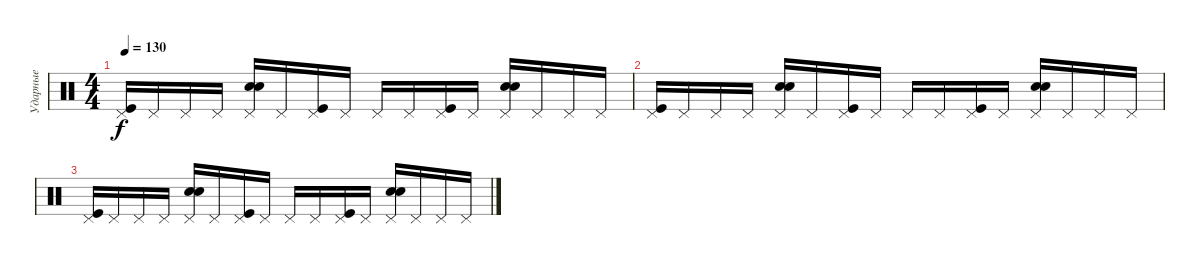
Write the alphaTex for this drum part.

\track ("Ударные" "Ударные") {instrument percussion}
\staff {score}
\articulation defaults
\ts (4 4)
\tempo 130
\clef neutral
\ks c
("Kick (hit)" "Pedal Hi-Hat (hit)").16{dy f} "Pedal Hi-Hat (hit)".16 "Pedal Hi-Hat (hit)".16 "Pedal Hi-Hat (hit)".16 ("Pedal Hi-Hat (hit)" "Electric Snare (hit)" "Hand Clap (hit)").16 "Pedal Hi-Hat (hit)".16 ("Kick (hit)" "Pedal Hi-Hat (hit)").16 "Pedal Hi-Hat (hit)".16 "Pedal Hi-Hat (hit)".16 "Pedal Hi-Hat (hit)".16 ("Kick (hit)" "Pedal Hi-Hat (hit)").16 "Pedal Hi-Hat (hit)".16 ("Pedal Hi-Hat (hit)" "Electric Snare (hit)" "Hand Clap (hit)").16 "Pedal Hi-Hat (hit)".16 "Pedal Hi-Hat (hit)".16 "Pedal Hi-Hat (hit)".16 |
("Kick (hit)" "Pedal Hi-Hat (hit)").16 "Pedal Hi-Hat (hit)".16 "Pedal Hi-Hat (hit)".16 "Pedal Hi-Hat (hit)".16 ("Pedal Hi-Hat (hit)" "Electric Snare (hit)" "Hand Clap (hit)").16 "Pedal Hi-Hat (hit)".16 ("Kick (hit)" "Pedal Hi-Hat (hit)").16 "Pedal Hi-Hat (hit)".16 "Pedal Hi-Hat (hit)".16 "Pedal Hi-Hat (hit)".16 ("Kick (hit)" "Pedal Hi-Hat (hit)").16 "Pedal Hi-Hat (hit)".16 ("Pedal Hi-Hat (hit)" "Electric Snare (hit)" "Hand Clap (hit)").16 "Pedal Hi-Hat (hit)".16 "Pedal Hi-Hat (hit)".16 "Pedal Hi-Hat (hit)".16 |
("Kick (hit)" "Pedal Hi-Hat (hit)").16 "Pedal Hi-Hat (hit)".16 "Pedal Hi-Hat (hit)".16 "Pedal Hi-Hat (hit)".16 ("Pedal Hi-Hat (hit)" "Electric Snare (hit)" "Hand Clap (hit)").16 "Pedal Hi-Hat (hit)".16 ("Kick (hit)" "Pedal Hi-Hat (hit)").16 "Pedal Hi-Hat (hit)".16 "Pedal Hi-Hat (hit)".16 "Pedal Hi-Hat (hit)".16 ("Kick (hit)" "Pedal Hi-Hat (hit)").16 "Pedal Hi-Hat (hit)".16 ("Pedal Hi-Hat (hit)" "Electric Snare (hit)" "Hand Clap (hit)").16 "Pedal Hi-Hat (hit)".16 "Pedal Hi-Hat (hit)".16 "Pedal Hi-Hat (hit)".16
